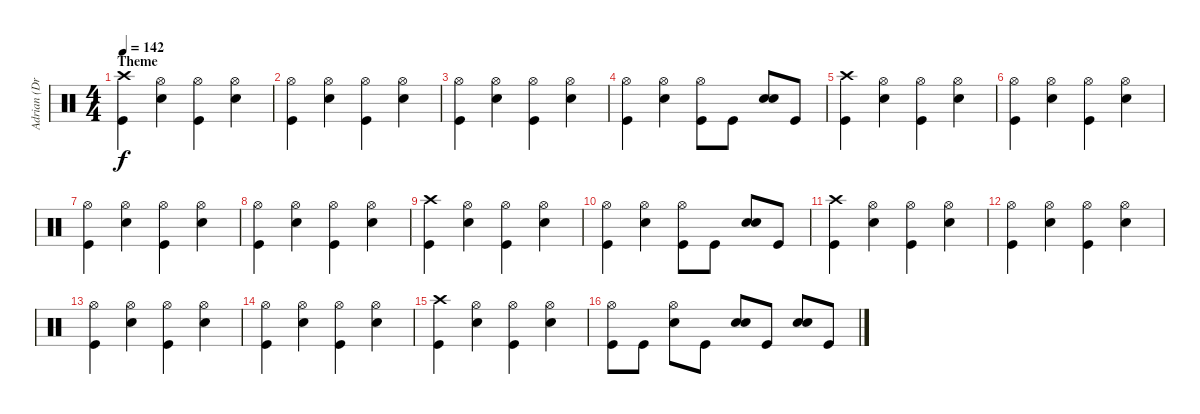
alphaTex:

\track ("Adrian (Drums)" "Adrian (Dr") {instrument percussion}
\staff {score}
\articulation defaults
\ts (4 4)
\section ("" "Theme")
\tempo 142
\clef neutral
\ks c
("Crash high (hit)" "Kick (hit)").4{dy f} ("Hi-Hat (open)" "Electric Snare (hit)").4 ("Hi-Hat (open)" "Kick (hit)").4 ("Hi-Hat (open)" "Electric Snare (hit)").4 |
("Hi-Hat (open)" "Kick (hit)").4 ("Hi-Hat (open)" "Electric Snare (hit)").4 ("Hi-Hat (open)" "Kick (hit)").4 ("Hi-Hat (open)" "Electric Snare (hit)").4 |
("Hi-Hat (open)" "Kick (hit)").4 ("Hi-Hat (open)" "Electric Snare (hit)").4 ("Hi-Hat (open)" "Kick (hit)").4 ("Hi-Hat (open)" "Electric Snare (hit)").4 |
("Hi-Hat (open)" "Kick (hit)").4 ("Hi-Hat (open)" "Electric Snare (hit)").4 ("Hi-Hat (open)" "Kick (hit)").8 "Kick (hit)".8 ("Electric Snare (hit)" "Electric Snare (hit)").8{bu 120} "Kick (hit)".8 |
("Crash high (hit)" "Kick (hit)").4 ("Hi-Hat (open)" "Electric Snare (hit)").4 ("Hi-Hat (open)" "Kick (hit)").4 ("Hi-Hat (open)" "Electric Snare (hit)").4 |
("Hi-Hat (open)" "Kick (hit)").4 ("Hi-Hat (open)" "Electric Snare (hit)").4 ("Hi-Hat (open)" "Kick (hit)").4 ("Hi-Hat (open)" "Electric Snare (hit)").4 |
("Hi-Hat (open)" "Kick (hit)").4 ("Hi-Hat (open)" "Electric Snare (hit)").4 ("Hi-Hat (open)" "Kick (hit)").4 ("Hi-Hat (open)" "Electric Snare (hit)").4 |
("Hi-Hat (open)" "Kick (hit)").4 ("Hi-Hat (open)" "Electric Snare (hit)").4 ("Hi-Hat (open)" "Kick (hit)").4 ("Hi-Hat (open)" "Electric Snare (hit)").4 |
("Crash high (hit)" "Kick (hit)").4 ("Hi-Hat (open)" "Electric Snare (hit)").4 ("Hi-Hat (open)" "Kick (hit)").4 ("Hi-Hat (open)" "Electric Snare (hit)").4 |
("Hi-Hat (open)" "Kick (hit)").4 ("Hi-Hat (open)" "Electric Snare (hit)").4 ("Hi-Hat (open)" "Kick (hit)").8 "Kick (hit)".8 ("Electric Snare (hit)" "Electric Snare (hit)").8{bu 120} "Kick (hit)".8 |
("Crash high (hit)" "Kick (hit)").4 ("Hi-Hat (open)" "Electric Snare (hit)").4 ("Hi-Hat (open)" "Kick (hit)").4 ("Hi-Hat (open)" "Electric Snare (hit)").4 |
("Hi-Hat (open)" "Kick (hit)").4 ("Hi-Hat (open)" "Electric Snare (hit)").4 ("Hi-Hat (open)" "Kick (hit)").4 ("Hi-Hat (open)" "Electric Snare (hit)").4 |
("Hi-Hat (open)" "Kick (hit)").4 ("Hi-Hat (open)" "Electric Snare (hit)").4 ("Hi-Hat (open)" "Kick (hit)").4 ("Hi-Hat (open)" "Electric Snare (hit)").4 |
("Hi-Hat (open)" "Kick (hit)").4 ("Hi-Hat (open)" "Electric Snare (hit)").4 ("Hi-Hat (open)" "Kick (hit)").4 ("Hi-Hat (open)" "Electric Snare (hit)").4 |
("Crash high (hit)" "Kick (hit)").4 ("Hi-Hat (open)" "Electric Snare (hit)").4 ("Hi-Hat (open)" "Kick (hit)").4 ("Hi-Hat (open)" "Electric Snare (hit)").4 |
("Hi-Hat (open)" "Kick (hit)").8 "Kick (hit)".8 ("Hi-Hat (open)" "Electric Snare (hit)").8 "Kick (hit)".8 ("Electric Snare (hit)" "Electric Snare (hit)").8{bu 120} "Kick (hit)".8 ("Electric Snare (hit)" "Electric Snare (hit)").8{bu 120} "Kick (hit)".8
